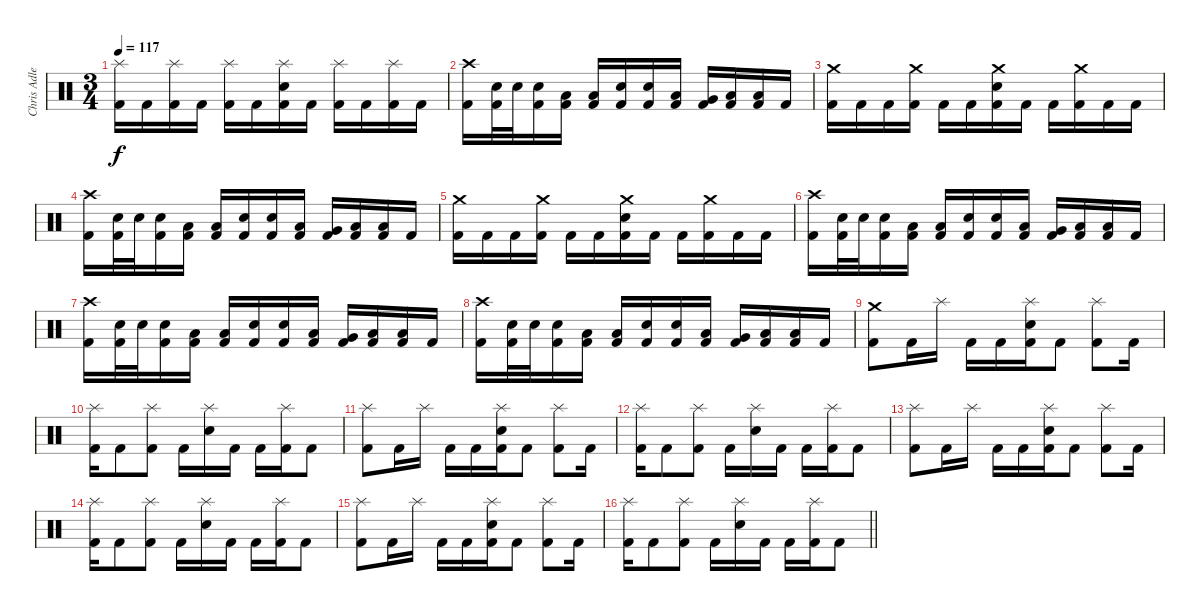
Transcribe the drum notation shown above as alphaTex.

\track ("Chris Adler" "Chris Adle") {instrument percussion}
\staff {score}
\articulation defaults
\ts (3 4)
\tempo 117
\clef neutral
\ks c
("Splash (hit)" "Kick (hit) 2").16{dy f} "Kick (hit) 2".16 ("Splash (hit)" "Kick (hit) 2").16 "Kick (hit) 2".16 ("Splash (hit)" "Kick (hit) 2").16 "Kick (hit) 2".16 ("Splash (hit)" "Electric Snare (hit)" "Kick (hit) 2").16 "Kick (hit) 2".16 ("Splash (hit)" "Kick (hit) 2").16 "Kick (hit) 2".16 ("Splash (hit)" "Kick (hit) 2").16 "Kick (hit) 2".16 |
("Crash high (hit)" "Kick (hit) 2").16 ("Electric Snare (hit)" "Kick (hit) 2").32 "Electric Snare (hit)".32 ("Electric Snare (hit)" "Kick (hit) 2").16 ("Low Tom (hit)" "Kick (hit) 2").16 ("Low Tom (hit)" "Kick (hit) 2").16 ("Electric Snare (hit)" "Kick (hit) 2").16 ("Electric Snare (hit)" "Kick (hit) 2").16 ("Low Tom (hit)" "Kick (hit) 2").16 ("Very Low Tom (hit)" "Kick (hit) 2").16 ("Low Floor Tom (hit)" "Kick (hit) 2").16 ("Low Floor Tom (hit)" "Kick (hit) 2").16 "Kick (hit) 2".16 |
("Crash medium (hit)" "Kick (hit) 2").16 "Kick (hit) 2".16 "Kick (hit) 2".16 ("Crash medium (hit)" "Kick (hit) 2").16 "Kick (hit) 2".16 "Kick (hit) 2".16 ("Crash medium (hit)" "Electric Snare (hit)" "Kick (hit) 2").16 "Kick (hit) 2".16 "Kick (hit) 2".16 ("Crash medium (hit)" "Kick (hit) 2").16 "Kick (hit) 2".16 "Kick (hit) 2".16 |
("Crash high (hit)" "Kick (hit) 2").16 ("Electric Snare (hit)" "Kick (hit) 2").32 "Electric Snare (hit)".32 ("Electric Snare (hit)" "Kick (hit) 2").16 ("Low Tom (hit)" "Kick (hit) 2").16 ("Low Tom (hit)" "Kick (hit) 2").16 ("Electric Snare (hit)" "Kick (hit) 2").16 ("Electric Snare (hit)" "Kick (hit) 2").16 ("Low Tom (hit)" "Kick (hit) 2").16 ("Very Low Tom (hit)" "Kick (hit) 2").16 ("Low Floor Tom (hit)" "Kick (hit) 2").16 ("Low Floor Tom (hit)" "Kick (hit) 2").16 "Kick (hit) 2".16 |
("Crash medium (hit)" "Kick (hit) 2").16 "Kick (hit) 2".16 "Kick (hit) 2".16 ("Crash medium (hit)" "Kick (hit) 2").16 "Kick (hit) 2".16 "Kick (hit) 2".16 ("Crash medium (hit)" "Electric Snare (hit)" "Kick (hit) 2").16 "Kick (hit) 2".16 "Kick (hit) 2".16 ("Crash medium (hit)" "Kick (hit) 2").16 "Kick (hit) 2".16 "Kick (hit) 2".16 |
("Crash high (hit)" "Kick (hit) 2").16 ("Electric Snare (hit)" "Kick (hit) 2").32 "Electric Snare (hit)".32 ("Electric Snare (hit)" "Kick (hit) 2").16 ("Low Tom (hit)" "Kick (hit) 2").16 ("Low Tom (hit)" "Kick (hit) 2").16 ("Electric Snare (hit)" "Kick (hit) 2").16 ("Electric Snare (hit)" "Kick (hit) 2").16 ("Low Tom (hit)" "Kick (hit) 2").16 ("Very Low Tom (hit)" "Kick (hit) 2").16 ("Low Floor Tom (hit)" "Kick (hit) 2").16 ("Low Floor Tom (hit)" "Kick (hit) 2").16 "Kick (hit) 2".16 |
("Crash high (hit)" "Kick (hit) 2").16 ("Electric Snare (hit)" "Kick (hit) 2").32 "Electric Snare (hit)".32 ("Electric Snare (hit)" "Kick (hit) 2").16 ("Low Tom (hit)" "Kick (hit) 2").16 ("Low Tom (hit)" "Kick (hit) 2").16 ("Electric Snare (hit)" "Kick (hit) 2").16 ("Electric Snare (hit)" "Kick (hit) 2").16 ("Low Tom (hit)" "Kick (hit) 2").16 ("Very Low Tom (hit)" "Kick (hit) 2").16 ("Low Floor Tom (hit)" "Kick (hit) 2").16 ("Low Floor Tom (hit)" "Kick (hit) 2").16 "Kick (hit) 2".16 |
("Crash high (hit)" "Kick (hit) 2").16 ("Electric Snare (hit)" "Kick (hit) 2").32 "Electric Snare (hit)".32 ("Electric Snare (hit)" "Kick (hit) 2").16 ("Low Tom (hit)" "Kick (hit) 2").16 ("Low Tom (hit)" "Kick (hit) 2").16 ("Electric Snare (hit)" "Kick (hit) 2").16 ("Electric Snare (hit)" "Kick (hit) 2").16 ("Low Tom (hit)" "Kick (hit) 2").16 ("Very Low Tom (hit)" "Kick (hit) 2").16 ("Low Floor Tom (hit)" "Kick (hit) 2").16 ("Low Floor Tom (hit)" "Kick (hit) 2").16 "Kick (hit) 2".16 |
("Crash medium (hit)" "Kick (hit) 2").8 "Kick (hit) 2".16 "Splash (hit)".16 "Kick (hit) 2".16 "Kick (hit) 2".16 ("Splash (hit)" "Electric Snare (hit)" "Kick (hit) 2").16 "Kick (hit) 2".8 ("Splash (hit)" "Kick (hit) 2").8 "Kick (hit) 2".16 |
("Splash (hit)" "Kick (hit) 2").16 "Kick (hit) 2".8 ("Splash (hit)" "Kick (hit) 2").8 "Kick (hit) 2".16 ("Splash (hit)" "Electric Snare (hit)").16 "Kick (hit) 2".16 "Kick (hit) 2".16 ("Splash (hit)" "Kick (hit) 2").16 "Kick (hit) 2".8 |
("Splash (hit)" "Kick (hit) 2").8 "Kick (hit) 2".16 "Splash (hit)".16 "Kick (hit) 2".16 "Kick (hit) 2".16 ("Splash (hit)" "Electric Snare (hit)" "Kick (hit) 2").16 "Kick (hit) 2".8 ("Splash (hit)" "Kick (hit) 2").8 "Kick (hit) 2".16 |
("Splash (hit)" "Kick (hit) 2").16 "Kick (hit) 2".8 ("Splash (hit)" "Kick (hit) 2").8 "Kick (hit) 2".16 ("Splash (hit)" "Electric Snare (hit)").16 "Kick (hit) 2".16 "Kick (hit) 2".16 ("Splash (hit)" "Kick (hit) 2").16 "Kick (hit) 2".8 |
("Splash (hit)" "Kick (hit) 2").8 "Kick (hit) 2".16 "Splash (hit)".16 "Kick (hit) 2".16 "Kick (hit) 2".16 ("Splash (hit)" "Electric Snare (hit)" "Kick (hit) 2").16 "Kick (hit) 2".8 ("Splash (hit)" "Kick (hit) 2").8 "Kick (hit) 2".16 |
("Splash (hit)" "Kick (hit) 2").16 "Kick (hit) 2".8 ("Splash (hit)" "Kick (hit) 2").8 "Kick (hit) 2".16 ("Splash (hit)" "Electric Snare (hit)").16 "Kick (hit) 2".16 "Kick (hit) 2".16 ("Splash (hit)" "Kick (hit) 2").16 "Kick (hit) 2".8 |
("Splash (hit)" "Kick (hit) 2").8 "Kick (hit) 2".16 "Splash (hit)".16 "Kick (hit) 2".16 "Kick (hit) 2".16 ("Splash (hit)" "Electric Snare (hit)" "Kick (hit) 2").16 "Kick (hit) 2".8 ("Splash (hit)" "Kick (hit) 2").8 "Kick (hit) 2".16 |
\barLineRight lightlight
("Splash (hit)" "Kick (hit) 2").16 "Kick (hit) 2".8 ("Splash (hit)" "Kick (hit) 2").8 "Kick (hit) 2".16 ("Splash (hit)" "Electric Snare (hit)").16 "Kick (hit) 2".16 "Kick (hit) 2".16 ("Splash (hit)" "Kick (hit) 2").16 "Kick (hit) 2".8
